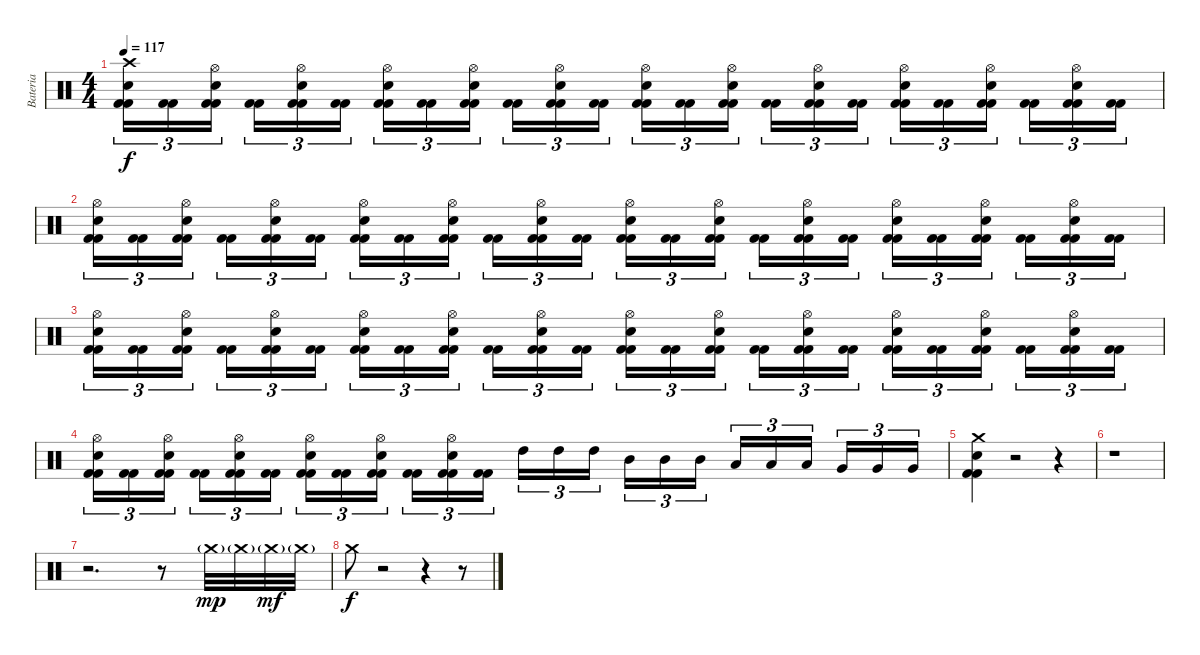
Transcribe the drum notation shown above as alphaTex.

\track ("Bateria" "Bateria") {instrument percussion}
\staff {score}
\articulation defaults
\ts (4 4)
\tempo 117
\clef neutral
\ks c
("Kick (hit) 2" "Kick (hit) 2" "Snare (hit) 2" "Crash high (hit)").16{tu (3 2) dy f} ("Kick (hit) 2" "Kick (hit) 2").16{tu (3 2)} ("Kick (hit) 2" "Kick (hit) 2" "Snare (hit) 2" "Hi-Hat (open)").16{tu (3 2)} ("Kick (hit) 2" "Kick (hit) 2").16{tu (3 2)} ("Kick (hit) 2" "Kick (hit) 2" "Snare (hit) 2" "Hi-Hat (open)").16{tu (3 2)} ("Kick (hit) 2" "Kick (hit) 2").16{tu (3 2)} ("Kick (hit) 2" "Kick (hit) 2" "Snare (hit) 2" "Hi-Hat (open)").16{tu (3 2)} ("Kick (hit) 2" "Kick (hit) 2").16{tu (3 2)} ("Kick (hit) 2" "Kick (hit) 2" "Snare (hit) 2" "Hi-Hat (open)").16{tu (3 2)} ("Kick (hit) 2" "Kick (hit) 2").16{tu (3 2)} ("Kick (hit) 2" "Kick (hit) 2" "Snare (hit) 2" "Hi-Hat (open)").16{tu (3 2)} ("Kick (hit) 2" "Kick (hit) 2").16{tu (3 2)} ("Kick (hit) 2" "Kick (hit) 2" "Snare (hit) 2" "Hi-Hat (open)").16{tu (3 2)} ("Kick (hit) 2" "Kick (hit) 2").16{tu (3 2)} ("Kick (hit) 2" "Kick (hit) 2" "Snare (hit) 2" "Hi-Hat (open)").16{tu (3 2)} ("Kick (hit) 2" "Kick (hit) 2").16{tu (3 2)} ("Kick (hit) 2" "Kick (hit) 2" "Snare (hit) 2" "Hi-Hat (open)").16{tu (3 2)} ("Kick (hit) 2" "Kick (hit) 2").16{tu (3 2)} ("Kick (hit) 2" "Kick (hit) 2" "Snare (hit) 2" "Hi-Hat (open)").16{tu (3 2)} ("Kick (hit) 2" "Kick (hit) 2").16{tu (3 2)} ("Kick (hit) 2" "Kick (hit) 2" "Snare (hit) 2" "Hi-Hat (open)").16{tu (3 2)} ("Kick (hit) 2" "Kick (hit) 2").16{tu (3 2)} ("Kick (hit) 2" "Kick (hit) 2" "Snare (hit) 2" "Hi-Hat (open)").16{tu (3 2)} ("Kick (hit) 2" "Kick (hit) 2").16{tu (3 2)} |
("Kick (hit) 2" "Kick (hit) 2" "Snare (hit) 2" "Hi-Hat (open)").16{tu (3 2)} ("Kick (hit) 2" "Kick (hit) 2").16{tu (3 2)} ("Kick (hit) 2" "Kick (hit) 2" "Snare (hit) 2" "Hi-Hat (open)").16{tu (3 2)} ("Kick (hit) 2" "Kick (hit) 2").16{tu (3 2)} ("Kick (hit) 2" "Kick (hit) 2" "Snare (hit) 2" "Hi-Hat (open)").16{tu (3 2)} ("Kick (hit) 2" "Kick (hit) 2").16{tu (3 2)} ("Kick (hit) 2" "Kick (hit) 2" "Snare (hit) 2" "Hi-Hat (open)").16{tu (3 2)} ("Kick (hit) 2" "Kick (hit) 2").16{tu (3 2)} ("Kick (hit) 2" "Kick (hit) 2" "Snare (hit) 2" "Hi-Hat (open)").16{tu (3 2)} ("Kick (hit) 2" "Kick (hit) 2").16{tu (3 2)} ("Kick (hit) 2" "Kick (hit) 2" "Snare (hit) 2" "Hi-Hat (open)").16{tu (3 2)} ("Kick (hit) 2" "Kick (hit) 2").16{tu (3 2)} ("Kick (hit) 2" "Kick (hit) 2" "Snare (hit) 2" "Hi-Hat (open)").16{tu (3 2)} ("Kick (hit) 2" "Kick (hit) 2").16{tu (3 2)} ("Kick (hit) 2" "Kick (hit) 2" "Snare (hit) 2" "Hi-Hat (open)").16{tu (3 2)} ("Kick (hit) 2" "Kick (hit) 2").16{tu (3 2)} ("Kick (hit) 2" "Kick (hit) 2" "Snare (hit) 2" "Hi-Hat (open)").16{tu (3 2)} ("Kick (hit) 2" "Kick (hit) 2").16{tu (3 2)} ("Kick (hit) 2" "Kick (hit) 2" "Snare (hit) 2" "Hi-Hat (open)").16{tu (3 2)} ("Kick (hit) 2" "Kick (hit) 2").16{tu (3 2)} ("Kick (hit) 2" "Kick (hit) 2" "Snare (hit) 2" "Hi-Hat (open)").16{tu (3 2)} ("Kick (hit) 2" "Kick (hit) 2").16{tu (3 2)} ("Kick (hit) 2" "Kick (hit) 2" "Snare (hit) 2" "Hi-Hat (open)").16{tu (3 2)} ("Kick (hit) 2" "Kick (hit) 2").16{tu (3 2)} |
("Kick (hit) 2" "Kick (hit) 2" "Snare (hit) 2" "Hi-Hat (open)").16{tu (3 2)} ("Kick (hit) 2" "Kick (hit) 2").16{tu (3 2)} ("Kick (hit) 2" "Kick (hit) 2" "Snare (hit) 2" "Hi-Hat (open)").16{tu (3 2)} ("Kick (hit) 2" "Kick (hit) 2").16{tu (3 2)} ("Kick (hit) 2" "Kick (hit) 2" "Snare (hit) 2" "Hi-Hat (open)").16{tu (3 2)} ("Kick (hit) 2" "Kick (hit) 2").16{tu (3 2)} ("Kick (hit) 2" "Kick (hit) 2" "Snare (hit) 2" "Hi-Hat (open)").16{tu (3 2)} ("Kick (hit) 2" "Kick (hit) 2").16{tu (3 2)} ("Kick (hit) 2" "Kick (hit) 2" "Snare (hit) 2" "Hi-Hat (open)").16{tu (3 2)} ("Kick (hit) 2" "Kick (hit) 2").16{tu (3 2)} ("Kick (hit) 2" "Kick (hit) 2" "Snare (hit) 2" "Hi-Hat (open)").16{tu (3 2)} ("Kick (hit) 2" "Kick (hit) 2").16{tu (3 2)} ("Kick (hit) 2" "Kick (hit) 2" "Snare (hit) 2" "Hi-Hat (open)").16{tu (3 2)} ("Kick (hit) 2" "Kick (hit) 2").16{tu (3 2)} ("Kick (hit) 2" "Kick (hit) 2" "Snare (hit) 2" "Hi-Hat (open)").16{tu (3 2)} ("Kick (hit) 2" "Kick (hit) 2").16{tu (3 2)} ("Kick (hit) 2" "Kick (hit) 2" "Snare (hit) 2" "Hi-Hat (open)").16{tu (3 2)} ("Kick (hit) 2" "Kick (hit) 2").16{tu (3 2)} ("Kick (hit) 2" "Kick (hit) 2" "Snare (hit) 2" "Hi-Hat (open)").16{tu (3 2)} ("Kick (hit) 2" "Kick (hit) 2").16{tu (3 2)} ("Kick (hit) 2" "Kick (hit) 2" "Snare (hit) 2" "Hi-Hat (open)").16{tu (3 2)} ("Kick (hit) 2" "Kick (hit) 2").16{tu (3 2)} ("Kick (hit) 2" "Kick (hit) 2" "Snare (hit) 2" "Hi-Hat (open)").16{tu (3 2)} ("Kick (hit) 2" "Kick (hit) 2").16{tu (3 2)} |
("Kick (hit) 2" "Kick (hit) 2" "Snare (hit) 2" "Hi-Hat (open)").16{tu (3 2)} ("Kick (hit) 2" "Kick (hit) 2").16{tu (3 2)} ("Kick (hit) 2" "Kick (hit) 2" "Snare (hit) 2" "Hi-Hat (open)").16{tu (3 2)} ("Kick (hit) 2" "Kick (hit) 2").16{tu (3 2)} ("Kick (hit) 2" "Kick (hit) 2" "Snare (hit) 2" "Hi-Hat (open)").16{tu (3 2)} ("Kick (hit) 2" "Kick (hit) 2").16{tu (3 2)} ("Kick (hit) 2" "Kick (hit) 2" "Snare (hit) 2" "Hi-Hat (open)").16{tu (3 2)} ("Kick (hit) 2" "Kick (hit) 2").16{tu (3 2)} ("Kick (hit) 2" "Kick (hit) 2" "Snare (hit) 2" "Hi-Hat (open)").16{tu (3 2)} ("Kick (hit) 2" "Kick (hit) 2").16{tu (3 2)} ("Kick (hit) 2" "Kick (hit) 2" "Snare (hit) 2" "Hi-Hat (open)").16{tu (3 2)} ("Kick (hit) 2" "Kick (hit) 2").16{tu (3 2)} "High Tom (hit)".16{tu (3 2)} "High Tom (hit)".16{tu (3 2)} "High Tom (hit)".16{tu (3 2)} "Mid Tom (hit)".16{tu (3 2)} "Mid Tom (hit)".16{tu (3 2)} "Mid Tom (hit)".16{tu (3 2)} "Low Tom (hit)".16{tu (3 2)} "Low Tom (hit)".16{tu (3 2)} "Low Tom (hit)".16{tu (3 2)} "Very Low Tom (hit)".16{tu (3 2)} "Very Low Tom (hit)".16{tu (3 2)} "Very Low Tom (hit)".16{tu (3 2)} |
("Kick (hit) 2" "Kick (hit) 2" "Snare (hit) 2" "Crash medium (hit)").4 r.2 r.4 |
r.1 |
r.2{d} r.8 "Crash medium (hit)"{g}.32{dy mp} "Crash medium (hit)"{g}.32 "Crash medium (hit)"{g}.32{dy mf} "Crash medium (hit)"{g}.32 |
"Crash medium (hit)".8{dy f} r.2 r.4 r.8
